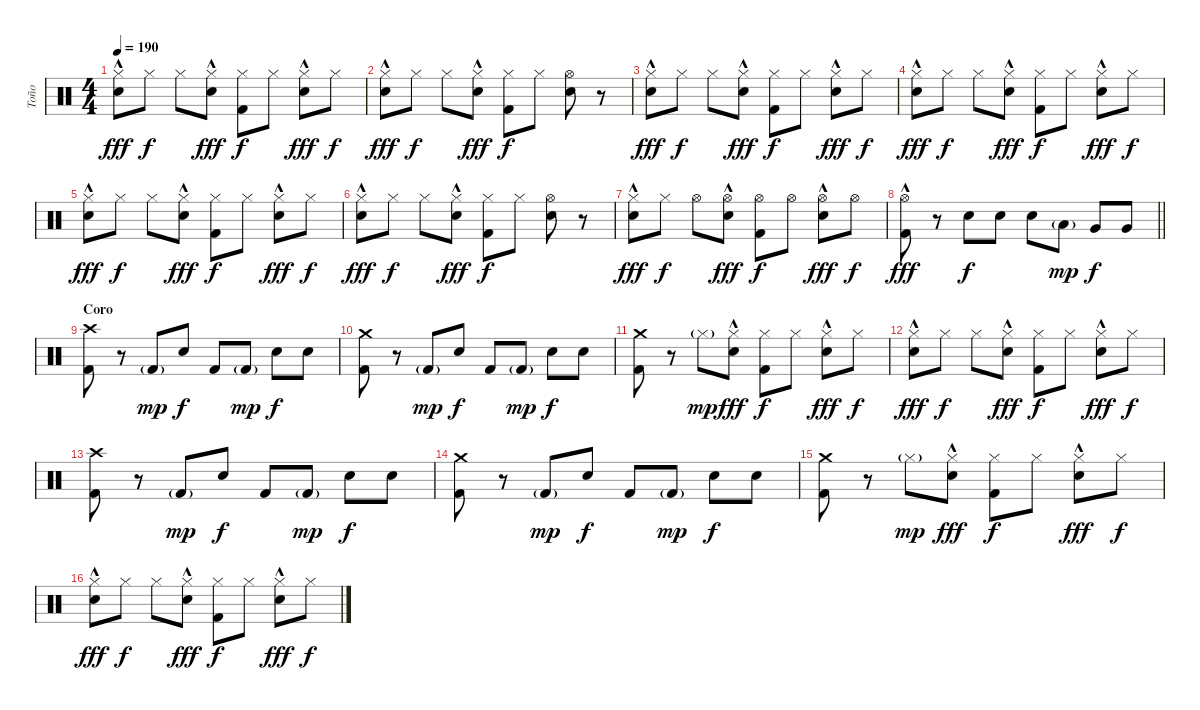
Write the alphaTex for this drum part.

\track ("Toño" "Toño") {instrument percussion}
\staff {score}
\articulation defaults
\ts (4 4)
\tempo 190
\clef neutral
\ks c
("Hi-Hat (closed)"{hac} "Snare (hit) 2").8{dy fff} "Hi-Hat (closed)".8{dy f} "Hi-Hat (closed)".8 ("Hi-Hat (closed)"{hac} "Snare (hit) 2").8{dy fff} ("Hi-Hat (closed)" "Kick (hit) 2").8{dy f} "Hi-Hat (closed)".8 ("Hi-Hat (closed)"{hac} "Snare (hit) 2").8{dy fff} "Hi-Hat (closed)".8{dy f} |
("Hi-Hat (closed)"{hac} "Snare (hit) 2").8{dy fff} "Hi-Hat (closed)".8{dy f} "Hi-Hat (closed)".8 ("Hi-Hat (closed)"{hac} "Snare (hit) 2").8{dy fff} ("Hi-Hat (closed)" "Kick (hit) 2").8{dy f} "Hi-Hat (closed)".8 ("Hi-Hat (open)" "Snare (hit) 2").8 r.8 |
("Hi-Hat (closed)"{hac} "Snare (hit) 2").8{dy fff} "Hi-Hat (closed)".8{dy f} "Hi-Hat (closed)".8 ("Hi-Hat (closed)"{hac} "Snare (hit) 2").8{dy fff} ("Hi-Hat (closed)" "Kick (hit) 2").8{dy f} "Hi-Hat (closed)".8 ("Hi-Hat (closed)"{hac} "Snare (hit) 2").8{dy fff} "Hi-Hat (closed)".8{dy f} |
("Hi-Hat (closed)"{hac} "Snare (hit) 2").8{dy fff} "Hi-Hat (closed)".8{dy f} "Hi-Hat (closed)".8 ("Hi-Hat (closed)"{hac} "Snare (hit) 2").8{dy fff} ("Hi-Hat (closed)" "Kick (hit) 2").8{dy f} "Hi-Hat (closed)".8 ("Hi-Hat (closed)"{hac} "Snare (hit) 2").8{dy fff} "Hi-Hat (closed)".8{dy f} |
("Hi-Hat (closed)"{hac} "Snare (hit) 2").8{dy fff} "Hi-Hat (closed)".8{dy f} "Hi-Hat (closed)".8 ("Hi-Hat (closed)"{hac} "Snare (hit) 2").8{dy fff} ("Hi-Hat (closed)" "Kick (hit) 2").8{dy f} "Hi-Hat (closed)".8 ("Hi-Hat (closed)"{hac} "Snare (hit) 2").8{dy fff} "Hi-Hat (closed)".8{dy f} |
("Hi-Hat (closed)"{hac} "Snare (hit) 2").8{dy fff} "Hi-Hat (closed)".8{dy f} "Hi-Hat (closed)".8 ("Hi-Hat (closed)"{hac} "Snare (hit) 2").8{dy fff} ("Hi-Hat (closed)" "Kick (hit) 2").8{dy f} "Hi-Hat (closed)".8 ("Hi-Hat (open)" "Snare (hit) 2").8 r.8 |
("Hi-Hat (closed)"{hac} "Snare (hit) 2").8{dy fff} "Hi-Hat (closed)".8{dy f} "Hi-Hat (open)".8 ("Hi-Hat (open)"{hac} "Snare (hit) 2").8{dy fff} ("Hi-Hat (open)" "Kick (hit) 2").8{dy f} "Hi-Hat (open)".8 ("Hi-Hat (open)"{hac} "Snare (hit) 2").8{dy fff} "Hi-Hat (open)".8{dy f} |
\barLineRight lightlight
("Hi-Hat (open)"{hac} "Kick (hit) 2").8{dy fff} r.8 "Snare (hit) 2".8{dy f} "Snare (hit) 2".8 "Snare (hit) 2".8 "Low Tom (hit)"{g}.8{dy mp} "Very Low Tom (hit)".8{dy f} "Very Low Tom (hit)".8 |
\section ("" "Coro")
("Crash high (hit)" "Kick (hit) 2").8 r.8 "Kick (hit) 2"{g}.8{dy mp} "Snare (hit) 2".8{dy f} "Kick (hit) 2".8 "Kick (hit) 2"{g}.8{dy mp} "Snare (hit) 2".8{dy f} "Snare (hit) 2".8 |
("Crash medium (hit)" "Kick (hit) 2").8 r.8 "Kick (hit) 2"{g}.8{dy mp} "Snare (hit) 2".8{dy f} "Kick (hit) 2".8 "Kick (hit) 2"{g}.8{dy mp} "Snare (hit) 2".8{dy f} "Snare (hit) 2".8 |
("Crash medium (hit)" "Kick (hit) 2").8 r.8 "Hi-Hat (closed)"{g}.8{dy mp} ("Hi-Hat (closed)"{hac} "Snare (hit) 2").8{dy fff} ("Hi-Hat (closed)" "Kick (hit) 2").8{dy f} "Hi-Hat (closed)".8 ("Hi-Hat (closed)"{hac} "Snare (hit) 2").8{dy fff} "Hi-Hat (closed)".8{dy f} |
("Hi-Hat (closed)"{hac} "Snare (hit) 2").8{dy fff} "Hi-Hat (closed)".8{dy f} "Hi-Hat (closed)".8 ("Hi-Hat (closed)"{hac} "Snare (hit) 2").8{dy fff} ("Hi-Hat (closed)" "Kick (hit) 2").8{dy f} "Hi-Hat (closed)".8 ("Hi-Hat (closed)"{hac} "Snare (hit) 2").8{dy fff} "Hi-Hat (closed)".8{dy f} |
("Crash high (hit)" "Kick (hit) 2").8 r.8 "Kick (hit) 2"{g}.8{dy mp} "Snare (hit) 2".8{dy f} "Kick (hit) 2".8 "Kick (hit) 2"{g}.8{dy mp} "Snare (hit) 2".8{dy f} "Snare (hit) 2".8 |
("Crash medium (hit)" "Kick (hit) 2").8 r.8 "Kick (hit) 2"{g}.8{dy mp} "Snare (hit) 2".8{dy f} "Kick (hit) 2".8 "Kick (hit) 2"{g}.8{dy mp} "Snare (hit) 2".8{dy f} "Snare (hit) 2".8 |
("Crash medium (hit)" "Kick (hit) 2").8 r.8 "Hi-Hat (closed)"{g}.8{dy mp} ("Hi-Hat (closed)"{hac} "Snare (hit) 2").8{dy fff} ("Hi-Hat (closed)" "Kick (hit) 2").8{dy f} "Hi-Hat (closed)".8 ("Hi-Hat (closed)"{hac} "Snare (hit) 2").8{dy fff} "Hi-Hat (closed)".8{dy f} |
("Hi-Hat (closed)"{hac} "Snare (hit) 2").8{dy fff} "Hi-Hat (closed)".8{dy f} "Hi-Hat (closed)".8 ("Hi-Hat (closed)"{hac} "Snare (hit) 2").8{dy fff} ("Hi-Hat (closed)" "Kick (hit) 2").8{dy f} "Hi-Hat (closed)".8 ("Hi-Hat (closed)"{hac} "Snare (hit) 2").8{dy fff} "Hi-Hat (closed)".8{dy f}
